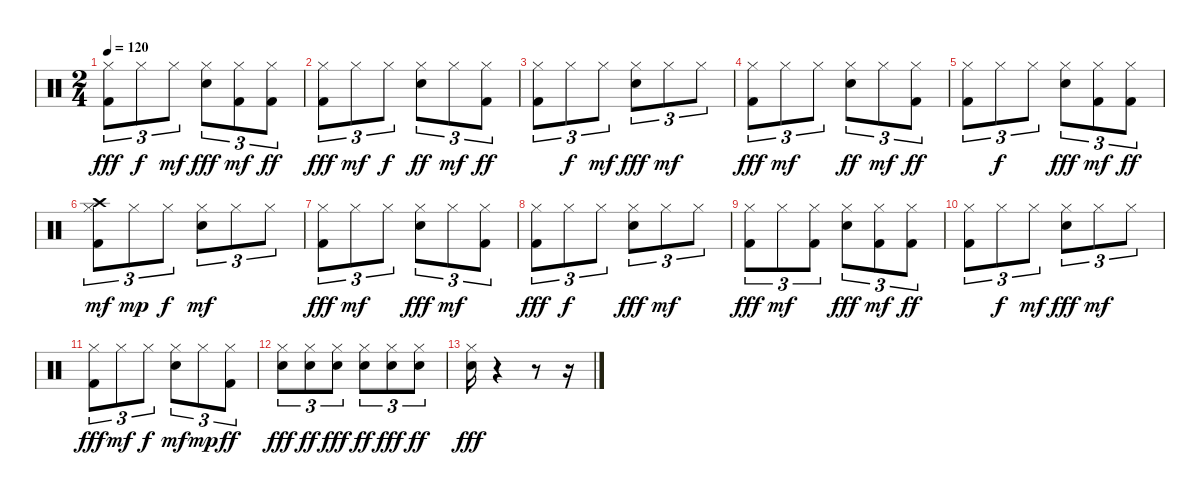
\track "" {instrument percussion}
\staff {score}
\articulation defaults
\ts (2 4)
\tempo 120
\clef neutral
\ks c
("Hi-Hat (closed)" "Kick (hit) 2").8{tu (3 2) dy fff} "Hi-Hat (closed)".8{tu (3 2) dy f} "Hi-Hat (closed)".8{tu (3 2) dy mf} ("Snare (hit) 2" "Hi-Hat (closed)").8{tu (3 2) dy fff} ("Kick (hit) 2" "Hi-Hat (closed)").8{tu (3 2) dy mf} ("Hi-Hat (closed)" "Kick (hit) 2").8{tu (3 2) dy ff} |
("Hi-Hat (closed)" "Kick (hit) 2").8{tu (3 2) dy fff} "Hi-Hat (closed)".8{tu (3 2) dy mf} "Hi-Hat (closed)".8{tu (3 2) dy f} ("Snare (hit) 2" "Hi-Hat (closed)").8{tu (3 2) dy ff} "Hi-Hat (closed)".8{tu (3 2) dy mf} ("Hi-Hat (closed)" "Kick (hit) 2").8{tu (3 2) dy ff} |
("Kick (hit) 2" "Hi-Hat (closed)").8{tu (3 2)} "Hi-Hat (closed)".8{tu (3 2) dy f} "Hi-Hat (closed)".8{tu (3 2) dy mf} ("Snare (hit) 2" "Hi-Hat (closed)").8{tu (3 2) dy fff} "Hi-Hat (closed)".8{tu (3 2) dy mf} "Hi-Hat (closed)".8{tu (3 2)} |
("Kick (hit) 2" "Hi-Hat (closed)").8{tu (3 2) dy fff} "Hi-Hat (closed)".8{tu (3 2) dy mf} "Hi-Hat (closed)".8{tu (3 2)} ("Snare (hit) 2" "Hi-Hat (closed)").8{tu (3 2) dy ff} "Hi-Hat (closed)".8{tu (3 2) dy mf} ("Hi-Hat (closed)" "Kick (hit) 2").8{tu (3 2) dy ff} |
("Hi-Hat (closed)" "Kick (hit) 2").8{tu (3 2)} "Hi-Hat (closed)".8{tu (3 2) dy f} "Hi-Hat (closed)".8{tu (3 2)} ("Snare (hit) 2" "Hi-Hat (closed)").8{tu (3 2) dy fff} ("Kick (hit) 2" "Hi-Hat (closed)").8{tu (3 2) dy mf} ("Hi-Hat (closed)" "Kick (hit) 2").8{tu (3 2) dy ff} |
("Kick (hit) 2" "Hi-Hat (closed)" "Crash high (hit)").8{tu (3 2) dy mf} "Hi-Hat (closed)".8{tu (3 2) dy mp} "Hi-Hat (closed)".8{tu (3 2) dy f} ("Snare (hit) 2" "Hi-Hat (closed)").8{tu (3 2) dy mf} "Hi-Hat (closed)".8{tu (3 2)} "Hi-Hat (closed)".8{tu (3 2)} |
("Kick (hit) 2" "Hi-Hat (closed)").8{tu (3 2) dy fff} "Hi-Hat (closed)".8{tu (3 2) dy mf} "Hi-Hat (closed)".8{tu (3 2)} ("Snare (hit) 2" "Hi-Hat (closed)").8{tu (3 2) dy fff} "Hi-Hat (closed)".8{tu (3 2) dy mf} ("Hi-Hat (closed)" "Kick (hit) 2").8{tu (3 2)} |
("Kick (hit) 2" "Hi-Hat (closed)").8{tu (3 2) dy fff} "Hi-Hat (closed)".8{tu (3 2) dy f} "Hi-Hat (closed)".8{tu (3 2)} ("Snare (hit) 2" "Hi-Hat (closed)").8{tu (3 2) dy fff} "Hi-Hat (closed)".8{tu (3 2) dy mf} "Hi-Hat (closed)".8{tu (3 2)} |
("Kick (hit) 2" "Hi-Hat (closed)").8{tu (3 2) dy fff} "Hi-Hat (closed)".8{tu (3 2) dy mf} ("Kick (hit) 2" "Hi-Hat (closed)").8{tu (3 2)} ("Snare (hit) 2" "Hi-Hat (closed)").8{tu (3 2) dy fff} ("Kick (hit) 2" "Hi-Hat (closed)").8{tu (3 2) dy mf} ("Kick (hit) 2" "Hi-Hat (closed)").8{tu (3 2) dy ff} |
("Kick (hit) 2" "Hi-Hat (closed)").8{tu (3 2)} "Hi-Hat (closed)".8{tu (3 2) dy f} "Hi-Hat (closed)".8{tu (3 2) dy mf} ("Snare (hit) 2" "Hi-Hat (closed)").8{tu (3 2) dy fff} "Hi-Hat (closed)".8{tu (3 2) dy mf} "Hi-Hat (closed)".8{tu (3 2)} |
("Kick (hit) 2" "Hi-Hat (closed)").8{tu (3 2) dy fff} "Hi-Hat (closed)".8{tu (3 2) dy mf} "Hi-Hat (closed)".8{tu (3 2) dy f} ("Snare (hit) 2" "Hi-Hat (closed)").8{tu (3 2) dy mf} "Hi-Hat (closed)".8{tu (3 2) dy mp} ("Kick (hit) 2" "Hi-Hat (closed)").8{tu (3 2) dy ff} |
("Snare (hit) 2" "Hi-Hat (closed)").8{tu (3 2) dy fff} ("Hi-Hat (closed)" "Snare (hit) 2").8{tu (3 2) dy ff} ("Hi-Hat (closed)" "Snare (hit) 2").8{tu (3 2) dy fff} ("Snare (hit) 2" "Hi-Hat (closed)").8{tu (3 2) dy ff} ("Hi-Hat (closed)" "Snare (hit) 2").8{tu (3 2) dy fff} ("Snare (hit) 2" "Hi-Hat (closed)").8{tu (3 2) dy ff} |
("Snare (hit) 2" "Hi-Hat (closed)").16{dy fff} r.4 r.8 r.16
